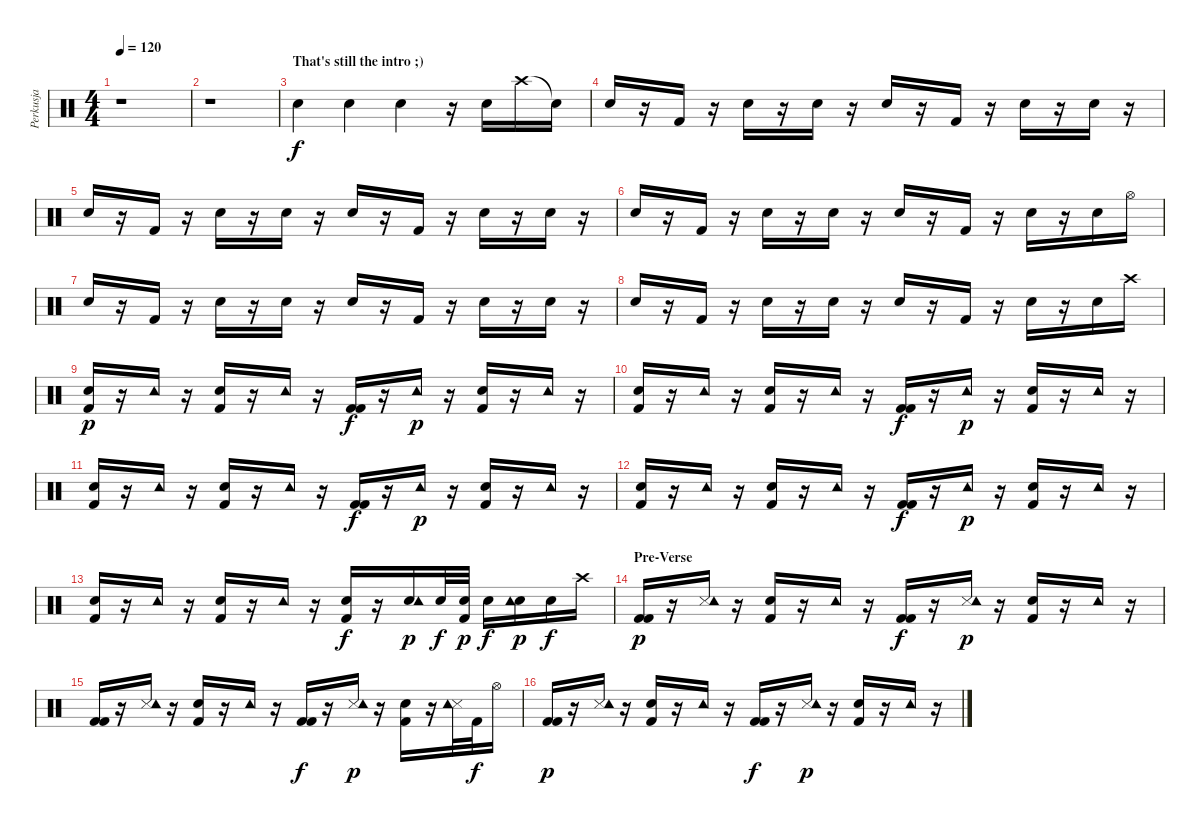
\track ("Perkusja" "Perkusja") {instrument percussion}
\staff {score}
\articulation defaults
\ts (4 4)
\tempo 120
\clef neutral
\ks c
r.1{dy f} |
r.1 |
\section ("" "That's still the intro ;)")
"Electric Snare (hit)".4 "Electric Snare (hit)".4 "Electric Snare (hit)".4 r.16 "Electric Snare (hit)".16 "Crash high (hit)".16 "Snare (hit)"{t}.16 |
"Snare (hit) 2".16 r.16 "Kick (hit) 2".16 r.16 "Electric Snare (hit)".16 r.16 "Electric Snare (hit)".16 r.16 "Snare (hit) 2".16 r.16 "Kick (hit) 2".16 r.16 "Electric Snare (hit)".16 r.16 "Electric Snare (hit)".16 r.16 |
"Snare (hit) 2".16 r.16 "Kick (hit) 2".16 r.16 "Electric Snare (hit)".16 r.16 "Electric Snare (hit)".16 r.16 "Snare (hit) 2".16 r.16 "Kick (hit) 2".16 r.16 "Electric Snare (hit)".16 r.16 "Electric Snare (hit)".16 r.16 |
"Snare (hit) 2".16 r.16 "Kick (hit) 2".16 r.16 "Electric Snare (hit)".16 r.16 "Electric Snare (hit)".16 r.16 "Snare (hit) 2".16 r.16 "Kick (hit) 2".16 r.16 "Electric Snare (hit)".16 r.16 "Electric Snare (hit)".16 "Hi-Hat (open)".16 |
"Snare (hit) 2".16 r.16 "Kick (hit) 2".16 r.16 "Electric Snare (hit)".16 r.16 "Electric Snare (hit)".16 r.16 "Snare (hit) 2".16 r.16 "Kick (hit) 2".16 r.16 "Electric Snare (hit)".16 r.16 "Electric Snare (hit)".16 r.16 |
"Snare (hit) 2".16 r.16 "Kick (hit) 2".16 r.16 "Electric Snare (hit)".16 r.16 "Electric Snare (hit)".16 r.16 "Snare (hit) 2".16 r.16 "Kick (hit) 2".16 r.16 "Electric Snare (hit)".16 r.16 "Electric Snare (hit)".16 "Crash high (hit)".16 |
("Snare (hit) 2" "Kick (hit) 2").16{dy p} r.16 "Tambourine (hit)".16 r.16 ("Electric Snare (hit)" "Kick (hit) 2").16 r.16 "Tambourine (hit)".16 r.16 ("Kick (hit) 2" "Kick (hit) 2").16{dy f} r.16 "Tambourine (hit)".16{dy p} r.16 ("Electric Snare (hit)" "Kick (hit) 2").16 r.16 "Tambourine (hit)".16 r.16 |
("Snare (hit) 2" "Kick (hit) 2").16 r.16 "Tambourine (hit)".16 r.16 ("Electric Snare (hit)" "Kick (hit) 2").16 r.16 "Tambourine (hit)".16 r.16 ("Kick (hit) 2" "Kick (hit) 2").16{dy f} r.16 "Tambourine (hit)".16{dy p} r.16 ("Electric Snare (hit)" "Kick (hit) 2").16 r.16 "Tambourine (hit)".16 r.16 |
("Snare (hit) 2" "Kick (hit) 2").16 r.16 "Tambourine (hit)".16 r.16 ("Electric Snare (hit)" "Kick (hit) 2").16 r.16 "Tambourine (hit)".16 r.16 ("Kick (hit) 2" "Kick (hit) 2").16{dy f} r.16 "Tambourine (hit)".16{dy p} r.16 ("Electric Snare (hit)" "Kick (hit) 2").16 r.16 "Tambourine (hit)".16 r.16 |
("Snare (hit) 2" "Kick (hit) 2").16 r.16 "Tambourine (hit)".16 r.16 ("Electric Snare (hit)" "Kick (hit) 2").16 r.16 "Tambourine (hit)".16 r.16 ("Kick (hit) 2" "Kick (hit) 2").16{dy f} r.16 "Tambourine (hit)".16{dy p} r.16 ("Electric Snare (hit)" "Kick (hit) 2").16 r.16 "Tambourine (hit)".16 r.16 |
("Snare (hit) 2" "Kick (hit) 2").16 r.16 "Tambourine (hit)".16 r.16 ("Snare (hit) 2" "Kick (hit) 2").16 r.16 "Tambourine (hit)".16 r.16 ("Snare (hit) 2" "Kick (hit) 2").16{dy f} r.16 ("Snare (hit) 2" "Tambourine (hit)").16{dy p} "Snare (hit) 2".32{dy f} ("Snare (hit) 2" "Kick (hit) 2").32{dy p} "Snare (hit) 2".16{dy f} ("Snare (hit) 2" "Tambourine (hit)").16{dy p} "Snare (hit) 2".16{dy f} "Crash high (hit)".16 |
\section ("" "Pre-Verse")
("Kick (hit) 2" "Kick (hit) 2").16{dy p} r.16 ("Snare (side stick) 3" "Tambourine (hit)").16 r.16 ("Electric Snare (hit)" "Kick (hit) 2").16 r.16 "Tambourine (hit)".16 r.16 ("Kick (hit) 2" "Kick (hit) 2").16{dy f} r.16 ("Snare (side stick) 3" "Tambourine (hit)").16{dy p} r.16 ("Electric Snare (hit)" "Kick (hit) 2").16 r.16 "Tambourine (hit)".16 r.16 |
("Kick (hit) 2" "Kick (hit) 2").16 r.16 ("Snare (side stick) 3" "Tambourine (hit)").16 r.16 ("Electric Snare (hit)" "Kick (hit) 2").16 r.16 "Tambourine (hit)".16 r.16 ("Kick (hit) 2" "Kick (hit) 2").16{dy f} r.16 ("Snare (side stick) 3" "Tambourine (hit)").16{dy p} r.16 ("Electric Snare (hit)" "Kick (hit) 2").16 r.16 ("Snare (side stick) 3" "Tambourine (hit)").32 "Kick (hit) 2".32{dy f} "Hi-Hat (open)".16 |
("Kick (hit) 2" "Kick (hit) 2").16{dy p} r.16 ("Snare (side stick) 3" "Tambourine (hit)").16 r.16 ("Electric Snare (hit)" "Kick (hit) 2").16 r.16 "Tambourine (hit)".16 r.16 ("Kick (hit) 2" "Kick (hit) 2").16{dy f} r.16 ("Snare (side stick) 3" "Tambourine (hit)").16{dy p} r.16 ("Electric Snare (hit)" "Kick (hit) 2").16 r.16 "Tambourine (hit)".16 r.16
